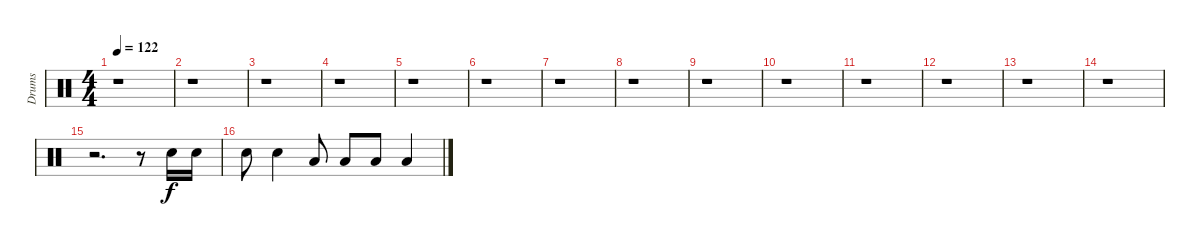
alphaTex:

\track ("Drums" "Drums") {instrument percussion}
\staff {score}
\articulation defaults
\ts (4 4)
\tempo 122
\clef neutral
\ks c
r.1{dy f} |
r.1 |
r.1 |
r.1 |
r.1 |
r.1 |
r.1 |
r.1 |
r.1 |
r.1 |
r.1 |
r.1 |
r.1 |
r.1 |
r.2{d} r.8 "Snare (hit) 2".16 "Snare (hit) 2".16 |
"Snare (hit) 2".8 "Snare (hit) 2".4 "Low Tom (hit)".8 "Low Tom (hit)".8 "Low Tom (hit)".8 "Low Tom (hit)".4
